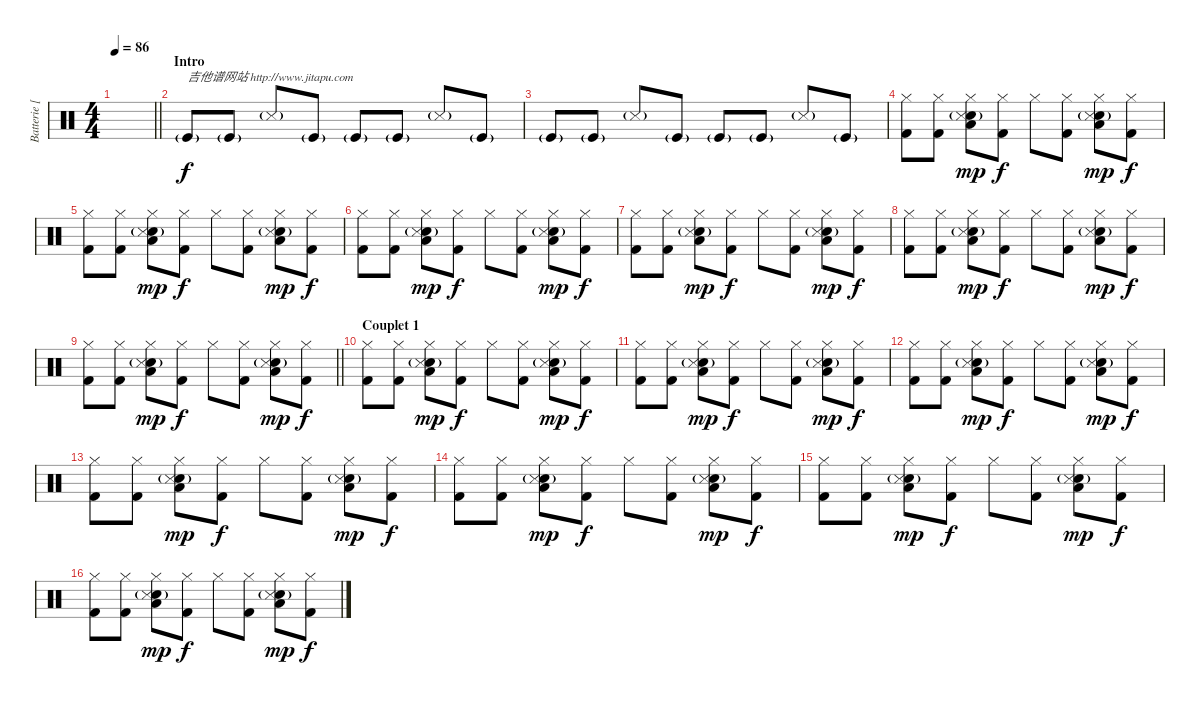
\track ("Batterie [Dominic Howard]" "Batterie [") {instrument percussion}
\staff {score}
\articulation defaults
\ts (4 4)
\tempo 86
\clef neutral
\barLineRight lightlight
\ks c
|
\section ("" "Intro")
"Kick (hit)"{g}.8{txt "吉他谱网站 http://www.jitapu.com"} "Kick (hit)"{g}.8 "Metronome (hit)"{g}.8 "Kick (hit)"{g}.8 "Kick (hit)"{g}.8 "Kick (hit)"{g}.8 "Metronome (hit)"{g}.8 "Kick (hit)"{g}.8 |
"Kick (hit)"{g}.8 "Kick (hit)"{g}.8 "Metronome (hit)"{g}.8 "Kick (hit)"{g}.8 "Kick (hit)"{g}.8 "Kick (hit)"{g}.8 "Metronome (hit)"{g}.8 "Kick (hit)"{g}.8 |
("Hi-Hat (closed)" "Kick (hit) 2").8{dy f} ("Hi-Hat (closed)" "Kick (hit) 2").8 ("Hi-Hat (closed)" "Low Tom (hit)" "Electric Snare (hit)"{g} "Snare (side stick) 3").8{dy mp} ("Hi-Hat (closed)" "Kick (hit) 2").8{dy f} "Hi-Hat (closed)".8 ("Hi-Hat (closed)" "Kick (hit) 2").8 ("Hi-Hat (closed)" "Low Tom (hit)" "Electric Snare (hit)"{g} "Snare (side stick) 3").8{dy mp} ("Hi-Hat (closed)" "Kick (hit) 2").8{dy f} |
("Hi-Hat (closed)" "Kick (hit) 2").8 ("Hi-Hat (closed)" "Kick (hit) 2").8 ("Hi-Hat (closed)" "Low Tom (hit)" "Electric Snare (hit)"{g} "Snare (side stick) 3").8{dy mp} ("Hi-Hat (closed)" "Kick (hit) 2").8{dy f} "Hi-Hat (closed)".8 ("Hi-Hat (closed)" "Kick (hit) 2").8 ("Hi-Hat (closed)" "Low Tom (hit)" "Electric Snare (hit)"{g} "Snare (side stick) 3").8{dy mp} ("Hi-Hat (closed)" "Kick (hit) 2").8{dy f} |
("Hi-Hat (closed)" "Kick (hit) 2").8 ("Hi-Hat (closed)" "Kick (hit) 2").8 ("Hi-Hat (closed)" "Low Tom (hit)" "Electric Snare (hit)"{g} "Snare (side stick) 3").8{dy mp} ("Hi-Hat (closed)" "Kick (hit) 2").8{dy f} "Hi-Hat (closed)".8 ("Hi-Hat (closed)" "Kick (hit) 2").8 ("Hi-Hat (closed)" "Low Tom (hit)" "Electric Snare (hit)"{g} "Snare (side stick) 3").8{dy mp} ("Hi-Hat (closed)" "Kick (hit) 2").8{dy f} |
("Hi-Hat (closed)" "Kick (hit) 2").8 ("Hi-Hat (closed)" "Kick (hit) 2").8 ("Hi-Hat (closed)" "Low Tom (hit)" "Electric Snare (hit)"{g} "Snare (side stick) 3").8{dy mp} ("Hi-Hat (closed)" "Kick (hit) 2").8{dy f} "Hi-Hat (closed)".8 ("Hi-Hat (closed)" "Kick (hit) 2").8 ("Hi-Hat (closed)" "Low Tom (hit)" "Electric Snare (hit)"{g} "Snare (side stick) 3").8{dy mp} ("Hi-Hat (closed)" "Kick (hit) 2").8{dy f} |
("Hi-Hat (closed)" "Kick (hit) 2").8 ("Hi-Hat (closed)" "Kick (hit) 2").8 ("Hi-Hat (closed)" "Low Tom (hit)" "Electric Snare (hit)"{g} "Snare (side stick) 3").8{dy mp} ("Hi-Hat (closed)" "Kick (hit) 2").8{dy f} "Hi-Hat (closed)".8 ("Hi-Hat (closed)" "Kick (hit) 2").8 ("Hi-Hat (closed)" "Low Tom (hit)" "Electric Snare (hit)"{g} "Snare (side stick) 3").8{dy mp} ("Hi-Hat (closed)" "Kick (hit) 2").8{dy f} |
\barLineRight lightlight
("Hi-Hat (closed)" "Kick (hit) 2").8 ("Hi-Hat (closed)" "Kick (hit) 2").8 ("Hi-Hat (closed)" "Low Tom (hit)" "Electric Snare (hit)"{g} "Snare (side stick) 3").8{dy mp} ("Hi-Hat (closed)" "Kick (hit) 2").8{dy f} "Hi-Hat (closed)".8 ("Hi-Hat (closed)" "Kick (hit) 2").8 ("Hi-Hat (closed)" "Low Tom (hit)" "Electric Snare (hit)"{g} "Snare (side stick) 3").8{dy mp} ("Hi-Hat (closed)" "Kick (hit) 2").8{dy f} |
\section ("" "Couplet 1")
("Hi-Hat (closed)" "Kick (hit) 2").8 ("Hi-Hat (closed)" "Kick (hit) 2").8 ("Hi-Hat (closed)" "Low Tom (hit)" "Electric Snare (hit)"{g} "Snare (side stick) 3").8{dy mp} ("Hi-Hat (closed)" "Kick (hit) 2").8{dy f} "Hi-Hat (closed)".8 ("Hi-Hat (closed)" "Kick (hit) 2").8 ("Hi-Hat (closed)" "Low Tom (hit)" "Electric Snare (hit)"{g} "Snare (side stick) 3").8{dy mp} ("Hi-Hat (closed)" "Kick (hit) 2").8{dy f} |
("Hi-Hat (closed)" "Kick (hit) 2").8 ("Hi-Hat (closed)" "Kick (hit) 2").8 ("Hi-Hat (closed)" "Low Tom (hit)" "Electric Snare (hit)"{g} "Snare (side stick) 3").8{dy mp} ("Hi-Hat (closed)" "Kick (hit) 2").8{dy f} "Hi-Hat (closed)".8 ("Hi-Hat (closed)" "Kick (hit) 2").8 ("Hi-Hat (closed)" "Low Tom (hit)" "Electric Snare (hit)"{g} "Snare (side stick) 3").8{dy mp} ("Hi-Hat (closed)" "Kick (hit) 2").8{dy f} |
("Hi-Hat (closed)" "Kick (hit) 2").8 ("Hi-Hat (closed)" "Kick (hit) 2").8 ("Hi-Hat (closed)" "Low Tom (hit)" "Electric Snare (hit)"{g} "Snare (side stick) 3").8{dy mp} ("Hi-Hat (closed)" "Kick (hit) 2").8{dy f} "Hi-Hat (closed)".8 ("Hi-Hat (closed)" "Kick (hit) 2").8 ("Hi-Hat (closed)" "Low Tom (hit)" "Electric Snare (hit)"{g} "Snare (side stick) 3").8{dy mp} ("Hi-Hat (closed)" "Kick (hit) 2").8{dy f} |
("Hi-Hat (closed)" "Kick (hit) 2").8 ("Hi-Hat (closed)" "Kick (hit) 2").8 ("Hi-Hat (closed)" "Low Tom (hit)" "Electric Snare (hit)"{g} "Snare (side stick) 3").8{dy mp} ("Hi-Hat (closed)" "Kick (hit) 2").8{dy f} "Hi-Hat (closed)".8 ("Hi-Hat (closed)" "Kick (hit) 2").8 ("Hi-Hat (closed)" "Low Tom (hit)" "Electric Snare (hit)"{g} "Snare (side stick) 3").8{dy mp} ("Hi-Hat (closed)" "Kick (hit) 2").8{dy f} |
("Hi-Hat (closed)" "Kick (hit) 2").8 ("Hi-Hat (closed)" "Kick (hit) 2").8 ("Hi-Hat (closed)" "Low Tom (hit)" "Electric Snare (hit)"{g} "Snare (side stick) 3").8{dy mp} ("Hi-Hat (closed)" "Kick (hit) 2").8{dy f} "Hi-Hat (closed)".8 ("Hi-Hat (closed)" "Kick (hit) 2").8 ("Hi-Hat (closed)" "Low Tom (hit)" "Electric Snare (hit)"{g} "Snare (side stick) 3").8{dy mp} ("Hi-Hat (closed)" "Kick (hit) 2").8{dy f} |
("Hi-Hat (closed)" "Kick (hit) 2").8 ("Hi-Hat (closed)" "Kick (hit) 2").8 ("Hi-Hat (closed)" "Low Tom (hit)" "Electric Snare (hit)"{g} "Snare (side stick) 3").8{dy mp} ("Hi-Hat (closed)" "Kick (hit) 2").8{dy f} "Hi-Hat (closed)".8 ("Hi-Hat (closed)" "Kick (hit) 2").8 ("Hi-Hat (closed)" "Low Tom (hit)" "Electric Snare (hit)"{g} "Snare (side stick) 3").8{dy mp} ("Hi-Hat (closed)" "Kick (hit) 2").8{dy f} |
("Hi-Hat (closed)" "Kick (hit) 2").8 ("Hi-Hat (closed)" "Kick (hit) 2").8 ("Hi-Hat (closed)" "Low Tom (hit)" "Electric Snare (hit)"{g} "Snare (side stick) 3").8{dy mp} ("Hi-Hat (closed)" "Kick (hit) 2").8{dy f} "Hi-Hat (closed)".8 ("Hi-Hat (closed)" "Kick (hit) 2").8 ("Hi-Hat (closed)" "Low Tom (hit)" "Electric Snare (hit)"{g} "Snare (side stick) 3").8{dy mp} ("Hi-Hat (closed)" "Kick (hit) 2").8{dy f}
